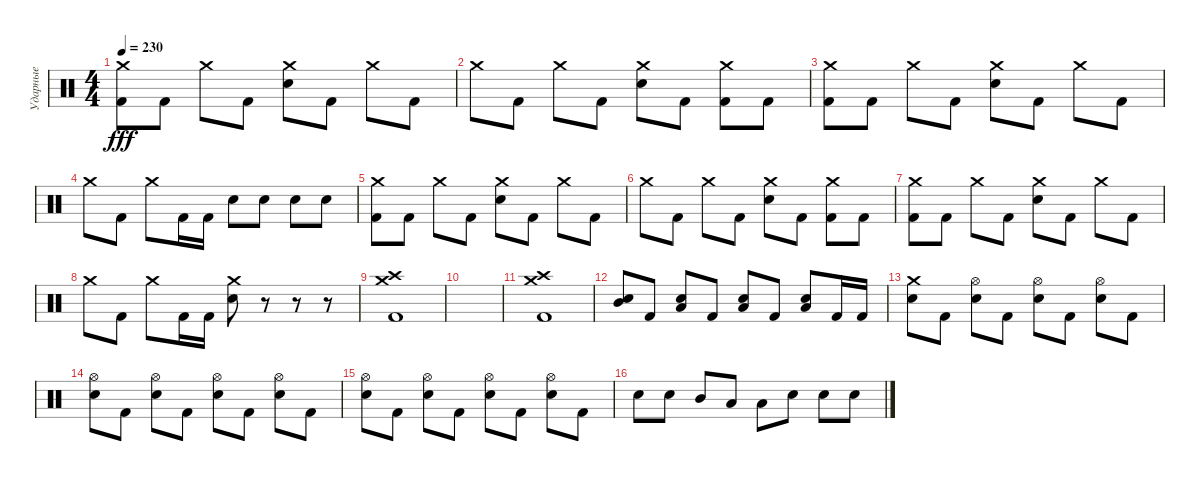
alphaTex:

\track ("Ударные" "Ударные") {instrument percussion}
\staff {score}
\articulation defaults
\ts (4 4)
\tempo 230
\clef neutral
\ks c
("Kick (hit) 2" "Crash medium (hit)").8{dy fff} "Kick (hit) 2".8 "Crash medium (hit)".8 "Kick (hit) 2".8 ("Electric Snare (hit)" "Crash medium (hit)").8 "Kick (hit) 2".8 "Crash medium (hit)".8 "Kick (hit) 2".8 |
"Crash medium (hit)".8 "Kick (hit) 2".8 "Crash medium (hit)".8 "Kick (hit) 2".8 ("Electric Snare (hit)" "Crash medium (hit)").8 "Kick (hit) 2".8 ("Kick (hit) 2" "Crash medium (hit)").8 "Kick (hit) 2".8 |
("Kick (hit) 2" "Crash medium (hit)").8 "Kick (hit) 2".8 "Crash medium (hit)".8 "Kick (hit) 2".8 ("Electric Snare (hit)" "Crash medium (hit)").8 "Kick (hit) 2".8 "Crash medium (hit)".8 "Kick (hit) 2".8 |
"Crash medium (hit)".8 "Kick (hit) 2".8 "Crash medium (hit)".8 "Kick (hit) 2".16 "Kick (hit) 2".16 "Electric Snare (hit)".8 "Electric Snare (hit)".8 "Electric Snare (hit)".8 "Electric Snare (hit)".8 |
("Kick (hit) 2" "Crash medium (hit)").8 "Kick (hit) 2".8 "Crash medium (hit)".8 "Kick (hit) 2".8 ("Electric Snare (hit)" "Crash medium (hit)").8 "Kick (hit) 2".8 "Crash medium (hit)".8 "Kick (hit) 2".8 |
"Crash medium (hit)".8 "Kick (hit) 2".8 "Crash medium (hit)".8 "Kick (hit) 2".8 ("Electric Snare (hit)" "Crash medium (hit)").8 "Kick (hit) 2".8 ("Kick (hit) 2" "Crash medium (hit)").8 "Kick (hit) 2".8 |
("Kick (hit) 2" "Crash medium (hit)").8 "Kick (hit) 2".8 "Crash medium (hit)".8 "Kick (hit) 2".8 ("Electric Snare (hit)" "Crash medium (hit)").8 "Kick (hit) 2".8 "Crash medium (hit)".8 "Kick (hit) 2".8 |
"Crash medium (hit)".8 "Kick (hit) 2".8 "Crash medium (hit)".8 "Kick (hit) 2".16 "Kick (hit) 2".16 ("Electric Snare (hit)" "Crash medium (hit)").8 r.8 r.8 r.8 |
("Kick (hit) 2" "Crash high (hit)" "Crash medium (hit)").1 |
|
("Kick (hit) 2" "Crash high (hit)" "Crash medium (hit)").1 |
("Electric Snare (hit)" "Mid Tom (hit)").8 "Kick (hit) 2".8 ("Electric Snare (hit)" "Low Tom (hit)").8 "Kick (hit) 2".8 ("Electric Snare (hit)" "Low Tom (hit)").8 "Kick (hit) 2".8 ("Electric Snare (hit)" "Low Tom (hit)").8 "Kick (hit) 2".16 "Kick (hit) 2".16 |
("Electric Snare (hit)" "Crash medium (hit)").8 "Kick (hit) 2".8 ("Electric Snare (hit)" "Hi-Hat (open)").8 "Kick (hit) 2".8 ("Electric Snare (hit)" "Hi-Hat (open)").8 "Kick (hit) 2".8 ("Electric Snare (hit)" "Hi-Hat (open)").8 "Kick (hit) 2".8 |
("Electric Snare (hit)" "Hi-Hat (open)").8 "Kick (hit) 2".8 ("Electric Snare (hit)" "Hi-Hat (open)").8 "Kick (hit) 2".8 ("Electric Snare (hit)" "Hi-Hat (open)").8 "Kick (hit) 2".8 ("Electric Snare (hit)" "Hi-Hat (open)").8 "Kick (hit) 2".8 |
("Electric Snare (hit)" "Hi-Hat (open)").8 "Kick (hit) 2".8 ("Electric Snare (hit)" "Hi-Hat (open)").8 "Kick (hit) 2".8 ("Electric Snare (hit)" "Hi-Hat (open)").8 "Kick (hit) 2".8 ("Electric Snare (hit)" "Hi-Hat (open)").8 "Kick (hit) 2".8 |
"Electric Snare (hit)".8 "Electric Snare (hit)".8 "Mid Tom (hit)".8 "Low Tom (hit)".8 "Low Tom (hit)".8 "Electric Snare (hit)".8 "Electric Snare (hit)".8 "Electric Snare (hit)".8
